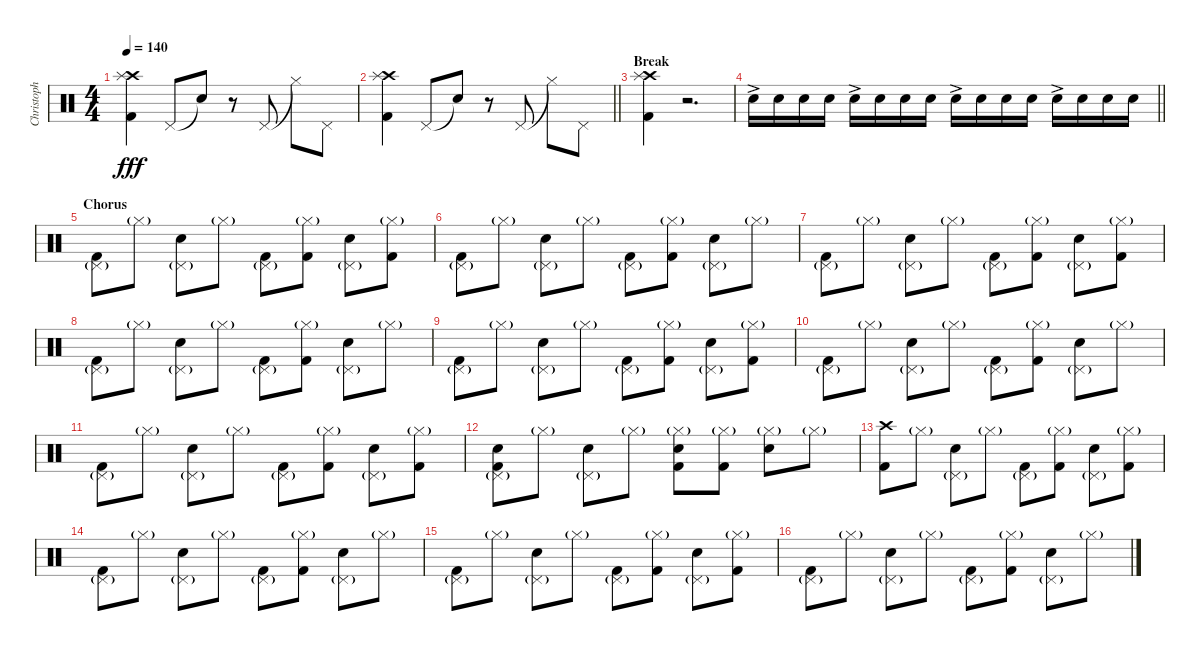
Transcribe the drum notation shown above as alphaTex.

\track ("Christoph" "Christoph") {instrument percussion}
\staff {score}
\articulation defaults
\ts (4 4)
\tempo 140
\clef neutral
\ks c
("Crash high (hit)" "Splash (hit)" "Kick (hit) 2").4{dy fff} "Pedal Hi-Hat (hit)".8 "Snare (hit)"{t}.8 r.8 "Pedal Hi-Hat (hit)".8 "Hi-Hat (closed)"{t}.8 "Pedal Hi-Hat (hit)".8 |
\barLineRight lightlight
("Crash high (hit)" "Splash (hit)" "Kick (hit) 2").4 "Pedal Hi-Hat (hit)".8 "Snare (hit)"{t}.8 r.8 "Pedal Hi-Hat (hit)".8 "Hi-Hat (closed)"{t}.8 "Pedal Hi-Hat (hit)".8 |
\section ("" "Break")
("Crash high (hit)" "Splash (hit)" "Kick (hit) 2").4 r.2{d} |
\barLineRight lightlight "Electric Snare (hit)"{ac}.16 "Electric Snare (hit)".16 "Electric Snare (hit)".16 "Electric Snare (hit)".16 "Electric Snare (hit)"{ac}.16 "Electric Snare (hit)".16 "Electric Snare (hit)".16 "Electric Snare (hit)".16 "Electric Snare (hit)"{ac}.16 "Electric Snare (hit)".16 "Electric Snare (hit)".16 "Electric Snare (hit)".16 "Electric Snare (hit)"{ac}.16 "Electric Snare (hit)".16 "Electric Snare (hit)".16 "Electric Snare (hit)".16
|
\section ("" "Chorus")
("Pedal Hi-Hat (hit)"{g} "Kick (hit) 2").8 "Hi-Hat (closed)"{g}.8 ("Pedal Hi-Hat (hit)"{g} "Electric Snare (hit)").8 "Hi-Hat (closed)"{g}.8 ("Pedal Hi-Hat (hit)"{g} "Kick (hit) 2").8 ("Hi-Hat (closed)"{g} "Kick (hit) 2").8 ("Pedal Hi-Hat (hit)"{g} "Electric Snare (hit)").8 ("Hi-Hat (closed)"{g} "Kick (hit) 2").8 |
("Pedal Hi-Hat (hit)"{g} "Kick (hit) 2").8 "Hi-Hat (closed)"{g}.8 ("Pedal Hi-Hat (hit)"{g} "Electric Snare (hit)").8 "Hi-Hat (closed)"{g}.8 ("Pedal Hi-Hat (hit)"{g} "Kick (hit) 2").8 ("Hi-Hat (closed)"{g} "Kick (hit) 2").8 ("Pedal Hi-Hat (hit)"{g} "Electric Snare (hit)").8 "Hi-Hat (closed)"{g}.8 |
("Pedal Hi-Hat (hit)"{g} "Kick (hit) 2").8 "Hi-Hat (closed)"{g}.8 ("Pedal Hi-Hat (hit)"{g} "Electric Snare (hit)").8 "Hi-Hat (closed)"{g}.8 ("Pedal Hi-Hat (hit)"{g} "Kick (hit) 2").8 ("Hi-Hat (closed)"{g} "Kick (hit) 2").8 ("Pedal Hi-Hat (hit)"{g} "Electric Snare (hit)").8 ("Hi-Hat (closed)"{g} "Kick (hit) 2").8 |
("Pedal Hi-Hat (hit)"{g} "Kick (hit) 2").8 "Hi-Hat (closed)"{g}.8 ("Pedal Hi-Hat (hit)"{g} "Electric Snare (hit)").8 "Hi-Hat (closed)"{g}.8 ("Pedal Hi-Hat (hit)"{g} "Kick (hit) 2").8 ("Hi-Hat (closed)"{g} "Kick (hit) 2").8 ("Pedal Hi-Hat (hit)"{g} "Electric Snare (hit)").8 "Hi-Hat (closed)"{g}.8 |
("Pedal Hi-Hat (hit)"{g} "Kick (hit) 2").8 "Hi-Hat (closed)"{g}.8 ("Pedal Hi-Hat (hit)"{g} "Electric Snare (hit)").8 "Hi-Hat (closed)"{g}.8 ("Pedal Hi-Hat (hit)"{g} "Kick (hit) 2").8 ("Hi-Hat (closed)"{g} "Kick (hit) 2").8 ("Pedal Hi-Hat (hit)"{g} "Electric Snare (hit)").8 ("Hi-Hat (closed)"{g} "Kick (hit) 2").8 |
("Pedal Hi-Hat (hit)"{g} "Kick (hit) 2").8 "Hi-Hat (closed)"{g}.8 ("Pedal Hi-Hat (hit)"{g} "Electric Snare (hit)").8 "Hi-Hat (closed)"{g}.8 ("Pedal Hi-Hat (hit)"{g} "Kick (hit) 2").8 ("Hi-Hat (closed)"{g} "Kick (hit) 2").8 ("Pedal Hi-Hat (hit)"{g} "Electric Snare (hit)").8 "Hi-Hat (closed)"{g}.8 |
("Pedal Hi-Hat (hit)"{g} "Kick (hit) 2").8 "Hi-Hat (closed)"{g}.8 ("Pedal Hi-Hat (hit)"{g} "Electric Snare (hit)").8 "Hi-Hat (closed)"{g}.8 ("Pedal Hi-Hat (hit)"{g} "Kick (hit) 2").8 ("Hi-Hat (closed)"{g} "Kick (hit) 2").8 ("Pedal Hi-Hat (hit)"{g} "Electric Snare (hit)").8 ("Hi-Hat (closed)"{g} "Kick (hit) 2").8 |
("Pedal Hi-Hat (hit)"{g} "Electric Snare (hit)" "Kick (hit) 2").8 "Hi-Hat (closed)"{g}.8 ("Pedal Hi-Hat (hit)"{g} "Electric Snare (hit)").8 "Hi-Hat (closed)"{g}.8 ("Hi-Hat (closed)"{g} "Electric Snare (hit)" "Kick (hit) 2").8 ("Hi-Hat (closed)"{g} "Kick (hit) 2").8 ("Hi-Hat (closed)"{g} "Electric Snare (hit)").8 "Hi-Hat (closed)"{g}.8 |
("Crash high (hit)" "Kick (hit) 2").8 "Hi-Hat (closed)"{g}.8 ("Pedal Hi-Hat (hit)"{g} "Electric Snare (hit)").8 "Hi-Hat (closed)"{g}.8 ("Pedal Hi-Hat (hit)"{g} "Kick (hit) 2").8 ("Hi-Hat (closed)"{g} "Kick (hit) 2").8 ("Pedal Hi-Hat (hit)"{g} "Electric Snare (hit)").8 ("Hi-Hat (closed)"{g} "Kick (hit) 2").8 |
("Pedal Hi-Hat (hit)"{g} "Kick (hit) 2").8 "Hi-Hat (closed)"{g}.8 ("Pedal Hi-Hat (hit)"{g} "Electric Snare (hit)").8 "Hi-Hat (closed)"{g}.8 ("Pedal Hi-Hat (hit)"{g} "Kick (hit) 2").8 ("Hi-Hat (closed)"{g} "Kick (hit) 2").8 ("Pedal Hi-Hat (hit)"{g} "Electric Snare (hit)").8 "Hi-Hat (closed)"{g}.8 |
("Pedal Hi-Hat (hit)"{g} "Kick (hit) 2").8 "Hi-Hat (closed)"{g}.8 ("Pedal Hi-Hat (hit)"{g} "Electric Snare (hit)").8 "Hi-Hat (closed)"{g}.8 ("Pedal Hi-Hat (hit)"{g} "Kick (hit) 2").8 ("Hi-Hat (closed)"{g} "Kick (hit) 2").8 ("Pedal Hi-Hat (hit)"{g} "Electric Snare (hit)").8 ("Hi-Hat (closed)"{g} "Kick (hit) 2").8 |
("Pedal Hi-Hat (hit)"{g} "Kick (hit) 2").8 "Hi-Hat (closed)"{g}.8 ("Pedal Hi-Hat (hit)"{g} "Electric Snare (hit)").8 "Hi-Hat (closed)"{g}.8 ("Pedal Hi-Hat (hit)"{g} "Kick (hit) 2").8 ("Hi-Hat (closed)"{g} "Kick (hit) 2").8 ("Pedal Hi-Hat (hit)"{g} "Electric Snare (hit)").8 "Hi-Hat (closed)"{g}.8
